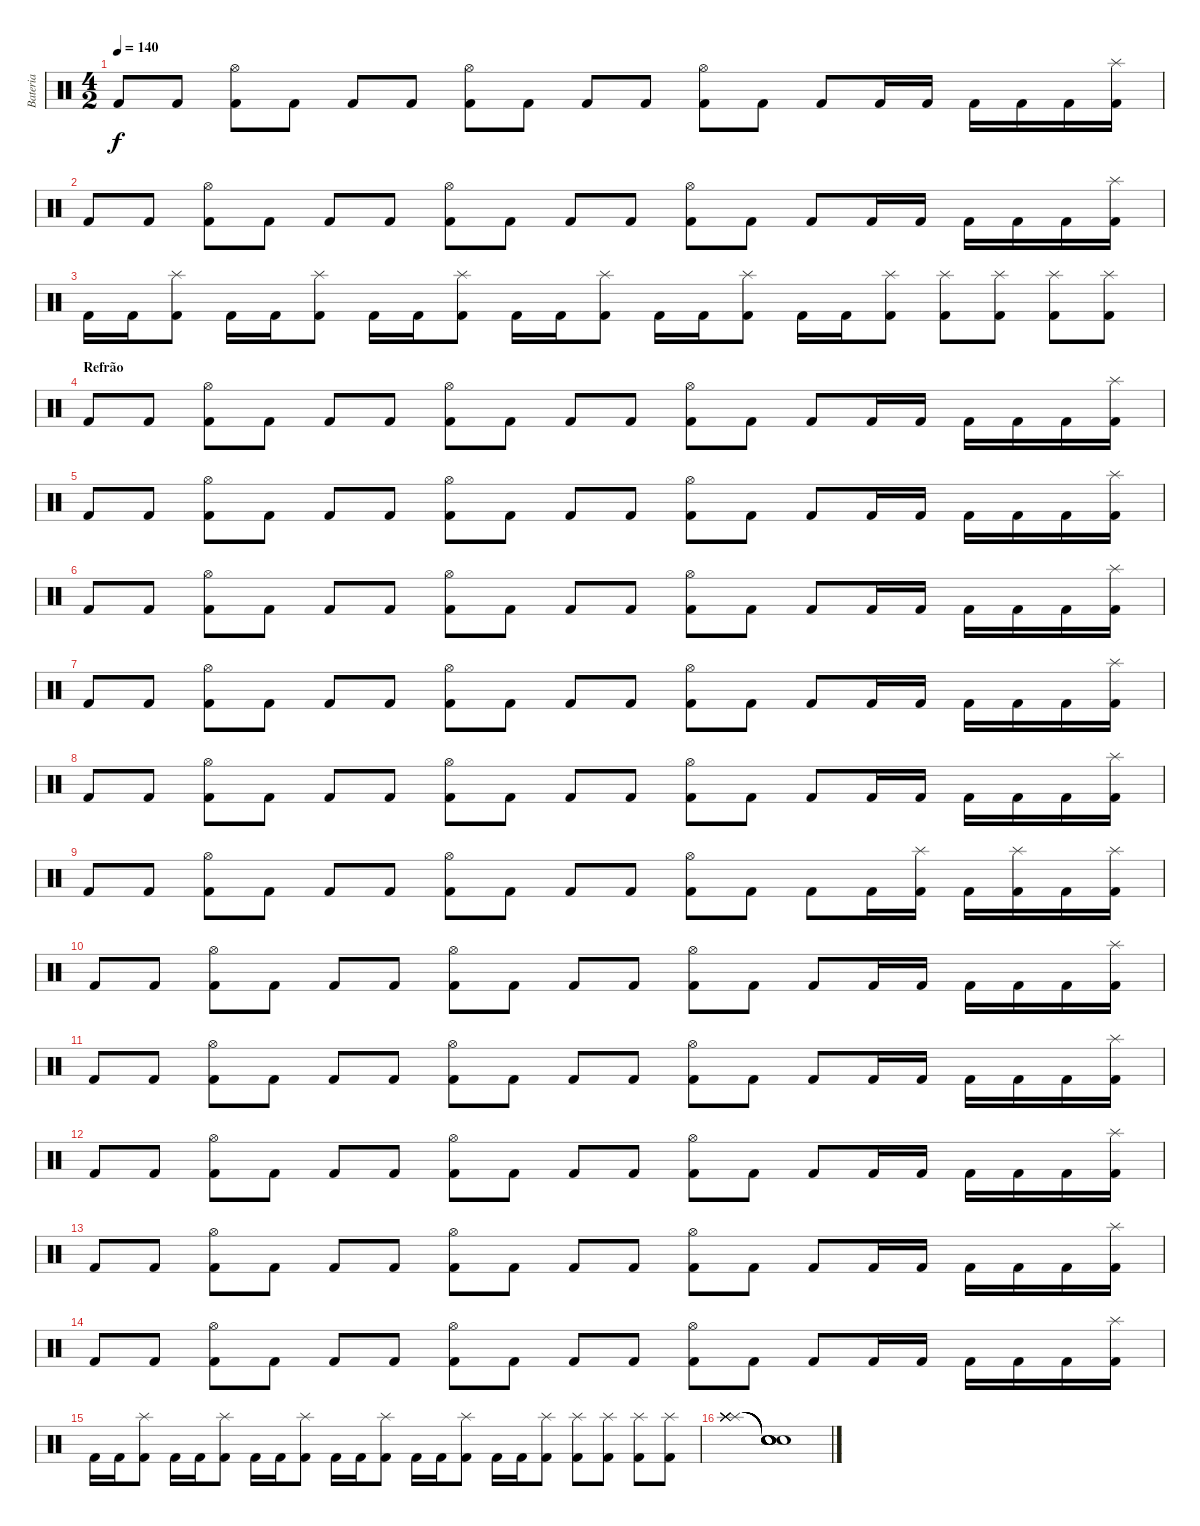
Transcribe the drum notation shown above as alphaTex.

\track ("Bateria" "Bateria") {instrument percussion}
\staff {score}
\articulation defaults
\ts (4 2)
\tempo 140
\clef neutral
\ks c "Kick (hit) 2".8{dy f} "Kick (hit) 2".8
("Kick (hit) 2" "Hi-Hat (open)").8 "Kick (hit) 2".8 "Kick (hit) 2".8 "Kick (hit) 2".8 ("Kick (hit) 2" "Hi-Hat (open)").8 "Kick (hit) 2".8 "Kick (hit) 2".8 "Kick (hit) 2".8 ("Kick (hit) 2" "Hi-Hat (open)").8 "Kick (hit) 2".8 "Kick (hit) 2".8 "Kick (hit) 2".16 "Kick (hit) 2".16 "Kick (hit) 2".16 "Kick (hit) 2".16 "Kick (hit) 2".16 ("Kick (hit) 2" "Splash (hit)").16 |
"Kick (hit) 2".8 "Kick (hit) 2".8 ("Kick (hit) 2" "Hi-Hat (open)").8 "Kick (hit) 2".8 "Kick (hit) 2".8 "Kick (hit) 2".8 ("Kick (hit) 2" "Hi-Hat (open)").8 "Kick (hit) 2".8 "Kick (hit) 2".8 "Kick (hit) 2".8 ("Kick (hit) 2" "Hi-Hat (open)").8 "Kick (hit) 2".8 "Kick (hit) 2".8 "Kick (hit) 2".16 "Kick (hit) 2".16 "Kick (hit) 2".16 "Kick (hit) 2".16 "Kick (hit) 2".16 ("Kick (hit) 2" "Splash (hit)").16 |
"Kick (hit) 2".16 "Kick (hit) 2".16 ("Kick (hit) 2" "Splash (hit)").8 "Kick (hit) 2".16 "Kick (hit) 2".16 ("Kick (hit) 2" "Splash (hit)").8 "Kick (hit) 2".16 "Kick (hit) 2".16 ("Kick (hit) 2" "Splash (hit)").8 "Kick (hit) 2".16 "Kick (hit) 2".16 ("Kick (hit) 2" "Splash (hit)").8 "Kick (hit) 2".16 "Kick (hit) 2".16 ("Kick (hit) 2" "Splash (hit)").8 "Kick (hit) 2".16 "Kick (hit) 2".16 ("Kick (hit) 2" "Splash (hit)").8 ("Kick (hit) 2" "Splash (hit)").8 ("Kick (hit) 2" "Splash (hit)").8 ("Kick (hit) 2" "Splash (hit)").8 ("Kick (hit) 2" "Splash (hit)").8 |
\section ("" "Refrão")
"Kick (hit) 2".8 "Kick (hit) 2".8 ("Kick (hit) 2" "Hi-Hat (open)").8 "Kick (hit) 2".8 "Kick (hit) 2".8 "Kick (hit) 2".8 ("Kick (hit) 2" "Hi-Hat (open)").8 "Kick (hit) 2".8 "Kick (hit) 2".8 "Kick (hit) 2".8 ("Kick (hit) 2" "Hi-Hat (open)").8 "Kick (hit) 2".8 "Kick (hit) 2".8 "Kick (hit) 2".16 "Kick (hit) 2".16 "Kick (hit) 2".16 "Kick (hit) 2".16 "Kick (hit) 2".16 ("Kick (hit) 2" "Splash (hit)").16 |
"Kick (hit) 2".8 "Kick (hit) 2".8 ("Kick (hit) 2" "Hi-Hat (open)").8 "Kick (hit) 2".8 "Kick (hit) 2".8 "Kick (hit) 2".8 ("Kick (hit) 2" "Hi-Hat (open)").8 "Kick (hit) 2".8 "Kick (hit) 2".8 "Kick (hit) 2".8 ("Kick (hit) 2" "Hi-Hat (open)").8 "Kick (hit) 2".8 "Kick (hit) 2".8 "Kick (hit) 2".16 "Kick (hit) 2".16 "Kick (hit) 2".16 "Kick (hit) 2".16 "Kick (hit) 2".16 ("Kick (hit) 2" "Splash (hit)").16 |
"Kick (hit) 2".8 "Kick (hit) 2".8 ("Kick (hit) 2" "Hi-Hat (open)").8 "Kick (hit) 2".8 "Kick (hit) 2".8 "Kick (hit) 2".8 ("Kick (hit) 2" "Hi-Hat (open)").8 "Kick (hit) 2".8 "Kick (hit) 2".8 "Kick (hit) 2".8 ("Kick (hit) 2" "Hi-Hat (open)").8 "Kick (hit) 2".8 "Kick (hit) 2".8 "Kick (hit) 2".16 "Kick (hit) 2".16 "Kick (hit) 2".16 "Kick (hit) 2".16 "Kick (hit) 2".16 ("Kick (hit) 2" "Splash (hit)").16 |
"Kick (hit) 2".8 "Kick (hit) 2".8 ("Kick (hit) 2" "Hi-Hat (open)").8 "Kick (hit) 2".8 "Kick (hit) 2".8 "Kick (hit) 2".8 ("Kick (hit) 2" "Hi-Hat (open)").8 "Kick (hit) 2".8 "Kick (hit) 2".8 "Kick (hit) 2".8 ("Kick (hit) 2" "Hi-Hat (open)").8 "Kick (hit) 2".8 "Kick (hit) 2".8 "Kick (hit) 2".16 "Kick (hit) 2".16 "Kick (hit) 2".16 "Kick (hit) 2".16 "Kick (hit) 2".16 ("Kick (hit) 2" "Splash (hit)").16 |
"Kick (hit) 2".8 "Kick (hit) 2".8 ("Kick (hit) 2" "Hi-Hat (open)").8 "Kick (hit) 2".8 "Kick (hit) 2".8 "Kick (hit) 2".8 ("Kick (hit) 2" "Hi-Hat (open)").8 "Kick (hit) 2".8 "Kick (hit) 2".8 "Kick (hit) 2".8 ("Kick (hit) 2" "Hi-Hat (open)").8 "Kick (hit) 2".8 "Kick (hit) 2".8 "Kick (hit) 2".16 "Kick (hit) 2".16 "Kick (hit) 2".16 "Kick (hit) 2".16 "Kick (hit) 2".16 ("Kick (hit) 2" "Splash (hit)").16 |
"Kick (hit) 2".8 "Kick (hit) 2".8 ("Kick (hit) 2" "Hi-Hat (open)").8 "Kick (hit) 2".8 "Kick (hit) 2".8 "Kick (hit) 2".8 ("Kick (hit) 2" "Hi-Hat (open)").8 "Kick (hit) 2".8 "Kick (hit) 2".8 "Kick (hit) 2".8 ("Kick (hit) 2" "Hi-Hat (open)").8 "Kick (hit) 2".8 "Kick (hit) 2".8 "Kick (hit) 2".16 ("Kick (hit) 2" "Splash (hit)").16 "Kick (hit) 2".16 ("Kick (hit) 2" "Splash (hit)").16 "Kick (hit) 2".16 ("Kick (hit) 2" "Splash (hit)").16 |
"Kick (hit) 2".8 "Kick (hit) 2".8 ("Kick (hit) 2" "Hi-Hat (open)").8 "Kick (hit) 2".8 "Kick (hit) 2".8 "Kick (hit) 2".8 ("Kick (hit) 2" "Hi-Hat (open)").8 "Kick (hit) 2".8 "Kick (hit) 2".8 "Kick (hit) 2".8 ("Kick (hit) 2" "Hi-Hat (open)").8 "Kick (hit) 2".8 "Kick (hit) 2".8 "Kick (hit) 2".16 "Kick (hit) 2".16 "Kick (hit) 2".16 "Kick (hit) 2".16 "Kick (hit) 2".16 ("Kick (hit) 2" "Splash (hit)").16 |
"Kick (hit) 2".8 "Kick (hit) 2".8 ("Kick (hit) 2" "Hi-Hat (open)").8 "Kick (hit) 2".8 "Kick (hit) 2".8 "Kick (hit) 2".8 ("Kick (hit) 2" "Hi-Hat (open)").8 "Kick (hit) 2".8 "Kick (hit) 2".8 "Kick (hit) 2".8 ("Kick (hit) 2" "Hi-Hat (open)").8 "Kick (hit) 2".8 "Kick (hit) 2".8 "Kick (hit) 2".16 "Kick (hit) 2".16 "Kick (hit) 2".16 "Kick (hit) 2".16 "Kick (hit) 2".16 ("Kick (hit) 2" "Splash (hit)").16 |
"Kick (hit) 2".8 "Kick (hit) 2".8 ("Kick (hit) 2" "Hi-Hat (open)").8 "Kick (hit) 2".8 "Kick (hit) 2".8 "Kick (hit) 2".8 ("Kick (hit) 2" "Hi-Hat (open)").8 "Kick (hit) 2".8 "Kick (hit) 2".8 "Kick (hit) 2".8 ("Kick (hit) 2" "Hi-Hat (open)").8 "Kick (hit) 2".8 "Kick (hit) 2".8 "Kick (hit) 2".16 "Kick (hit) 2".16 "Kick (hit) 2".16 "Kick (hit) 2".16 "Kick (hit) 2".16 ("Kick (hit) 2" "Splash (hit)").16 |
"Kick (hit) 2".8 "Kick (hit) 2".8 ("Kick (hit) 2" "Hi-Hat (open)").8 "Kick (hit) 2".8 "Kick (hit) 2".8 "Kick (hit) 2".8 ("Kick (hit) 2" "Hi-Hat (open)").8 "Kick (hit) 2".8 "Kick (hit) 2".8 "Kick (hit) 2".8 ("Kick (hit) 2" "Hi-Hat (open)").8 "Kick (hit) 2".8 "Kick (hit) 2".8 "Kick (hit) 2".16 "Kick (hit) 2".16 "Kick (hit) 2".16 "Kick (hit) 2".16 "Kick (hit) 2".16 ("Kick (hit) 2" "Splash (hit)").16 |
"Kick (hit) 2".8 "Kick (hit) 2".8 ("Kick (hit) 2" "Hi-Hat (open)").8 "Kick (hit) 2".8 "Kick (hit) 2".8 "Kick (hit) 2".8 ("Kick (hit) 2" "Hi-Hat (open)").8 "Kick (hit) 2".8 "Kick (hit) 2".8 "Kick (hit) 2".8 ("Kick (hit) 2" "Hi-Hat (open)").8 "Kick (hit) 2".8 "Kick (hit) 2".8 "Kick (hit) 2".16 "Kick (hit) 2".16 "Kick (hit) 2".16 "Kick (hit) 2".16 "Kick (hit) 2".16 ("Kick (hit) 2" "Splash (hit)").16 |
"Kick (hit) 2".16 "Kick (hit) 2".16 ("Kick (hit) 2" "Splash (hit)").8 "Kick (hit) 2".16 "Kick (hit) 2".16 ("Kick (hit) 2" "Splash (hit)").8 "Kick (hit) 2".16 "Kick (hit) 2".16 ("Kick (hit) 2" "Splash (hit)").8 "Kick (hit) 2".16 "Kick (hit) 2".16 ("Kick (hit) 2" "Splash (hit)").8 "Kick (hit) 2".16 "Kick (hit) 2".16 ("Kick (hit) 2" "Splash (hit)").8 "Kick (hit) 2".16 "Kick (hit) 2".16 ("Kick (hit) 2" "Splash (hit)").8 ("Kick (hit) 2" "Splash (hit)").8 ("Kick (hit) 2" "Splash (hit)").8 ("Kick (hit) 2" "Splash (hit)").8 ("Kick (hit) 2" "Splash (hit)").8 |
("Splash (hit)" "Splash (hit)" "Splash (hit)" "Splash (hit)" "Splash (hit)" "Splash (hit)").1 ("Snare (hit)"{t} "Snare (hit)"{t} "Snare (hit)"{t} "Snare (hit)"{t} "Snare (hit)"{t} "Snare (hit)"{t}).1
